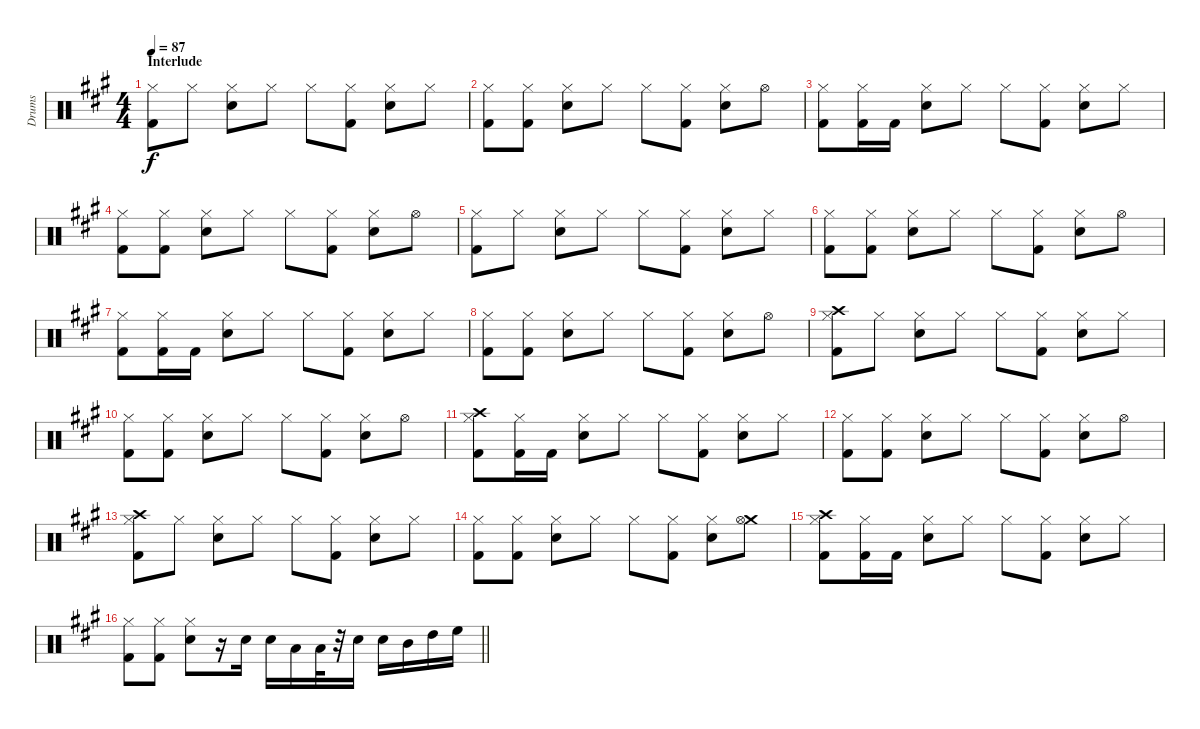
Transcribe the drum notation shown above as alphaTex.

\track ("Drums" "Drums") {instrument percussion}
\staff {score}
\articulation defaults
\ts (4 4)
\section ("" "Interlude")
\tempo 87
\clef neutral
\ks a
("Hi-Hat (closed)" "Kick (hit) 2").8{dy f} "Hi-Hat (closed)".8 ("Hi-Hat (closed)" "Electric Snare (hit)").8 "Hi-Hat (closed)".8 "Hi-Hat (closed)".8 ("Hi-Hat (closed)" "Kick (hit) 2").8 ("Hi-Hat (closed)" "Electric Snare (hit)").8 "Hi-Hat (closed)".8 |
("Hi-Hat (closed)" "Kick (hit) 2").8 ("Hi-Hat (closed)" "Kick (hit) 2").8 ("Hi-Hat (closed)" "Electric Snare (hit)").8 "Hi-Hat (closed)".8 "Hi-Hat (closed)".8 ("Hi-Hat (closed)" "Kick (hit) 2").8 ("Hi-Hat (closed)" "Electric Snare (hit)").8 "Hi-Hat (open)".8 |
("Hi-Hat (closed)" "Kick (hit) 2").8 ("Hi-Hat (closed)" "Kick (hit) 2").16 "Kick (hit) 2".16 ("Hi-Hat (closed)" "Electric Snare (hit)").8 "Hi-Hat (closed)".8 "Hi-Hat (closed)".8 ("Hi-Hat (closed)" "Kick (hit) 2").8 ("Hi-Hat (closed)" "Electric Snare (hit)").8 "Hi-Hat (closed)".8 |
("Hi-Hat (closed)" "Kick (hit) 2").8 ("Hi-Hat (closed)" "Kick (hit) 2").8 ("Hi-Hat (closed)" "Electric Snare (hit)").8 "Hi-Hat (closed)".8 "Hi-Hat (closed)".8 ("Hi-Hat (closed)" "Kick (hit) 2").8 ("Hi-Hat (closed)" "Electric Snare (hit)").8 "Hi-Hat (open)".8 |
("Hi-Hat (closed)" "Kick (hit) 2").8 "Hi-Hat (closed)".8 ("Hi-Hat (closed)" "Electric Snare (hit)").8 "Hi-Hat (closed)".8 "Hi-Hat (closed)".8 ("Hi-Hat (closed)" "Kick (hit) 2").8 ("Hi-Hat (closed)" "Electric Snare (hit)").8 "Hi-Hat (closed)".8 |
("Hi-Hat (closed)" "Kick (hit) 2").8 ("Hi-Hat (closed)" "Kick (hit) 2").8 ("Hi-Hat (closed)" "Electric Snare (hit)").8 "Hi-Hat (closed)".8 "Hi-Hat (closed)".8 ("Hi-Hat (closed)" "Kick (hit) 2").8 ("Hi-Hat (closed)" "Electric Snare (hit)").8 "Hi-Hat (open)".8 |
("Hi-Hat (closed)" "Kick (hit) 2").8 ("Hi-Hat (closed)" "Kick (hit) 2").16 "Kick (hit) 2".16 ("Hi-Hat (closed)" "Electric Snare (hit)").8 "Hi-Hat (closed)".8 "Hi-Hat (closed)".8 ("Hi-Hat (closed)" "Kick (hit) 2").8 ("Hi-Hat (closed)" "Electric Snare (hit)").8 "Hi-Hat (closed)".8 |
("Hi-Hat (closed)" "Kick (hit) 2").8 ("Hi-Hat (closed)" "Kick (hit) 2").8 ("Hi-Hat (closed)" "Electric Snare (hit)").8 "Hi-Hat (closed)".8 "Hi-Hat (closed)".8 ("Hi-Hat (closed)" "Kick (hit) 2").8 ("Hi-Hat (closed)" "Electric Snare (hit)").8 "Hi-Hat (open)".8 |
("Crash high (hit)" "Hi-Hat (closed)" "Kick (hit) 2").8 "Hi-Hat (closed)".8 ("Hi-Hat (closed)" "Electric Snare (hit)").8 "Hi-Hat (closed)".8 "Hi-Hat (closed)".8 ("Hi-Hat (closed)" "Kick (hit) 2").8 ("Hi-Hat (closed)" "Electric Snare (hit)").8 "Hi-Hat (closed)".8 |
("Hi-Hat (closed)" "Kick (hit) 2").8 ("Hi-Hat (closed)" "Kick (hit) 2").8 ("Hi-Hat (closed)" "Electric Snare (hit)").8 "Hi-Hat (closed)".8 "Hi-Hat (closed)".8 ("Hi-Hat (closed)" "Kick (hit) 2").8 ("Hi-Hat (closed)" "Electric Snare (hit)").8 "Hi-Hat (open)".8 |
("Crash high (hit)" "Hi-Hat (closed)" "Kick (hit) 2").8 ("Hi-Hat (closed)" "Kick (hit) 2").16 "Kick (hit) 2".16 ("Hi-Hat (closed)" "Electric Snare (hit)").8 "Hi-Hat (closed)".8 "Hi-Hat (closed)".8 ("Hi-Hat (closed)" "Kick (hit) 2").8 ("Hi-Hat (closed)" "Electric Snare (hit)").8 "Hi-Hat (closed)".8 |
("Hi-Hat (closed)" "Kick (hit) 2").8 ("Hi-Hat (closed)" "Kick (hit) 2").8 ("Hi-Hat (closed)" "Electric Snare (hit)").8 "Hi-Hat (closed)".8 "Hi-Hat (closed)".8 ("Hi-Hat (closed)" "Kick (hit) 2").8 ("Hi-Hat (closed)" "Electric Snare (hit)").8 "Hi-Hat (open)".8 |
("Crash high (hit)" "Hi-Hat (closed)" "Kick (hit) 2").8 "Hi-Hat (closed)".8 ("Hi-Hat (closed)" "Electric Snare (hit)").8 "Hi-Hat (closed)".8 "Hi-Hat (closed)".8 ("Hi-Hat (closed)" "Kick (hit) 2").8 ("Hi-Hat (closed)" "Electric Snare (hit)").8 "Hi-Hat (closed)".8 |
("Hi-Hat (closed)" "Kick (hit) 2").8 ("Hi-Hat (closed)" "Kick (hit) 2").8 ("Hi-Hat (closed)" "Electric Snare (hit)").8 "Hi-Hat (closed)".8 "Hi-Hat (closed)".8 ("Hi-Hat (closed)" "Kick (hit) 2").8 ("Hi-Hat (closed)" "Electric Snare (hit)").8 ("Crash medium (hit)" "Hi-Hat (open)").8 |
("Crash high (hit)" "Hi-Hat (closed)" "Kick (hit) 2").8 ("Hi-Hat (closed)" "Kick (hit) 2").16 "Kick (hit) 2".16 ("Hi-Hat (closed)" "Electric Snare (hit)").8 "Hi-Hat (closed)".8 "Hi-Hat (closed)".8 ("Hi-Hat (closed)" "Kick (hit) 2").8 ("Hi-Hat (closed)" "Electric Snare (hit)").8 "Hi-Hat (closed)".8 |
\barLineRight lightlight
("Hi-Hat (closed)" "Kick (hit) 2").8 ("Hi-Hat (closed)" "Kick (hit) 2").8 ("Hi-Hat (closed)" "Electric Snare (hit)").8 r.16 "Electric Snare (hit)".16 "Electric Snare (hit)".16 "Low Tom (hit)".16 "Low Tom (hit)".32 r.32 "Electric Snare (hit)".16 "Electric Snare (hit)".16 "Mid Tom (hit)".16 "High Tom (hit)".16 "High Floor Tom (hit)".16
